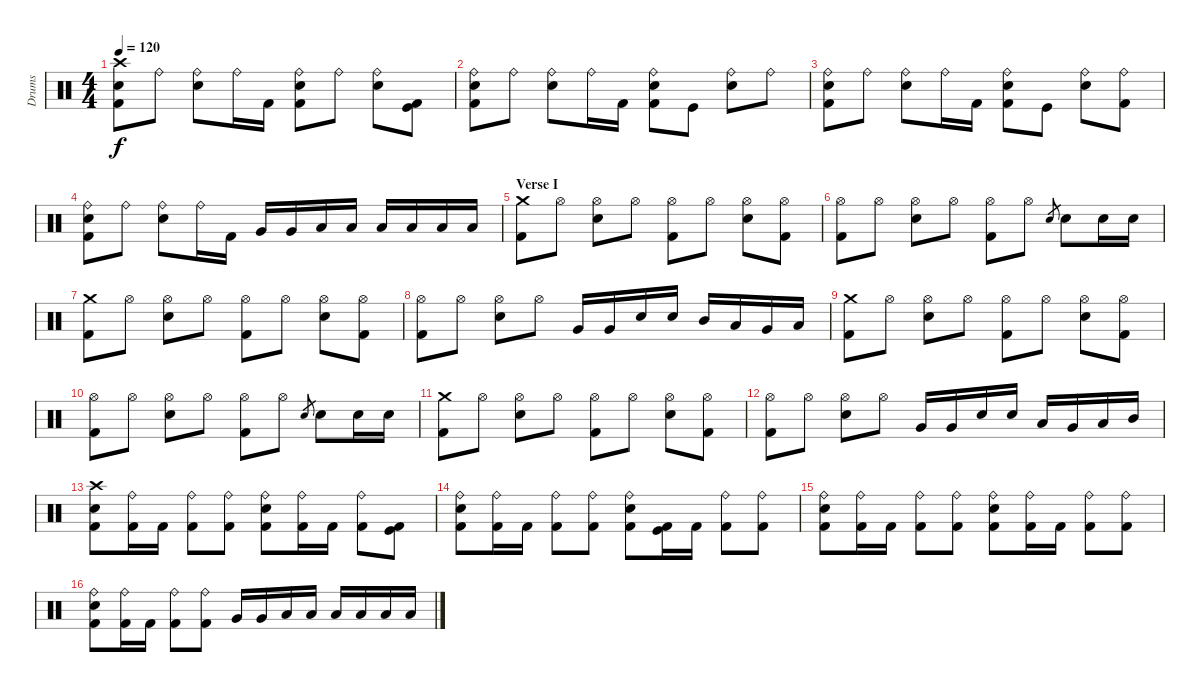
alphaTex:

\track ("Drums" "Drums") {instrument percussion}
\staff {score}
\articulation defaults
\ts (4 4)
\tempo 120
\clef neutral
\ks c
("Kick (hit) 2" "Snare (hit) 2" "Crash high (hit)").8{dy f} "Ride (bell)".8 ("Snare (hit) 2" "Ride (bell)").8 "Ride (bell)".16 "Kick (hit) 2".16 ("Kick (hit) 2" "Snare (hit) 2" "Ride (bell)").8 "Ride (bell)".8 ("Snare (hit) 2" "Ride (bell)").8 ("Kick (hit) 2" "Kick (hit)").8 |
("Kick (hit) 2" "Snare (hit) 2" "Ride (bell)").8 "Ride (bell)".8 ("Snare (hit) 2" "Ride (bell)").8 "Ride (bell)".16 "Kick (hit) 2".16 ("Kick (hit) 2" "Snare (hit) 2" "Ride (bell)").8 "Kick (hit)".8 ("Snare (hit) 2" "Ride (bell)").8 "Ride (bell)".8 |
("Kick (hit) 2" "Snare (hit) 2" "Ride (bell)").8 "Ride (bell)".8 ("Snare (hit) 2" "Ride (bell)").8 "Ride (bell)".16 "Kick (hit) 2".16 ("Kick (hit) 2" "Snare (hit) 2" "Ride (bell)").8 "Kick (hit)".8 ("Snare (hit) 2" "Ride (bell)").8 ("Kick (hit) 2" "Ride (bell)").8 |
("Kick (hit) 2" "Snare (hit) 2" "Ride (bell)").8 "Ride (bell)".8 ("Snare (hit) 2" "Ride (bell)").8 "Ride (bell)".16 "Kick (hit) 2".16 "Very Low Tom (hit)".16 "Very Low Tom (hit)".16 "Low Tom (hit)".16 "Low Tom (hit)".16 "Low Floor Tom (hit)".16 "Low Floor Tom (hit)".16 "Low Floor Tom (hit)".16 "Low Floor Tom (hit)".16 |
\section ("" "Verse I")
("Kick (hit) 2" "Crash medium (hit)").8 "Hi-Hat (open)".8 ("Snare (hit) 2" "Hi-Hat (open)").8 "Hi-Hat (open)".8 ("Kick (hit) 2" "Hi-Hat (open)").8 "Hi-Hat (open)".8 ("Snare (hit) 2" "Hi-Hat (open)").8 ("Kick (hit) 2" "Hi-Hat (open)").8 |
("Kick (hit) 2" "Hi-Hat (open)").8 "Hi-Hat (open)".8 ("Snare (hit) 2" "Hi-Hat (open)").8 "Hi-Hat (open)".8 ("Kick (hit) 2" "Hi-Hat (open)").8 "Hi-Hat (open)".8 "Snare (hit) 2".8{gr} "Snare (hit) 2".8 "Snare (hit) 2".16 "Snare (hit) 2".16 |
("Kick (hit) 2" "Crash medium (hit)").8 "Hi-Hat (open)".8 ("Snare (hit) 2" "Hi-Hat (open)").8 "Hi-Hat (open)".8 ("Kick (hit) 2" "Hi-Hat (open)").8 "Hi-Hat (open)".8 ("Snare (hit) 2" "Hi-Hat (open)").8 ("Kick (hit) 2" "Hi-Hat (open)").8 |
("Kick (hit) 2" "Hi-Hat (open)").8 "Hi-Hat (open)".8 ("Snare (hit) 2" "Hi-Hat (open)").8 "Hi-Hat (open)".8 "Very Low Tom (hit)".16 "Very Low Tom (hit)".16 "Snare (hit) 2".16 "Snare (hit) 2".16 "Mid Tom (hit)".16 "Low Tom (hit)".16 "Very Low Tom (hit)".16 "Low Floor Tom (hit)".16 |
("Kick (hit) 2" "Crash medium (hit)").8 "Hi-Hat (open)".8 ("Snare (hit) 2" "Hi-Hat (open)").8 "Hi-Hat (open)".8 ("Kick (hit) 2" "Hi-Hat (open)").8 "Hi-Hat (open)".8 ("Snare (hit) 2" "Hi-Hat (open)").8 ("Kick (hit) 2" "Hi-Hat (open)").8 |
("Kick (hit) 2" "Hi-Hat (open)").8 "Hi-Hat (open)".8 ("Snare (hit) 2" "Hi-Hat (open)").8 "Hi-Hat (open)".8 ("Kick (hit) 2" "Hi-Hat (open)").8 "Hi-Hat (open)".8 "Snare (hit) 2".8{gr} "Snare (hit) 2".8 "Snare (hit) 2".16 "Snare (hit) 2".16 |
("Kick (hit) 2" "Crash medium (hit)").8 "Hi-Hat (open)".8 ("Snare (hit) 2" "Hi-Hat (open)").8 "Hi-Hat (open)".8 ("Kick (hit) 2" "Hi-Hat (open)").8 "Hi-Hat (open)".8 ("Snare (hit) 2" "Hi-Hat (open)").8 ("Kick (hit) 2" "Hi-Hat (open)").8 |
("Kick (hit) 2" "Hi-Hat (open)").8 "Hi-Hat (open)".8 ("Snare (hit) 2" "Hi-Hat (open)").8 "Hi-Hat (open)".8 "Very Low Tom (hit)".16 "Very Low Tom (hit)".16 "Snare (hit) 2".16 "Snare (hit) 2".16 "Low Floor Tom (hit)".16 "Very Low Tom (hit)".16 "Low Tom (hit)".16 "Mid Tom (hit)".16 |
("Kick (hit) 2" "Snare (hit) 2" "Crash high (hit)").8 ("Kick (hit) 2" "Ride (bell)").16 "Kick (hit) 2".16 ("Kick (hit) 2" "Ride (bell)").8 ("Kick (hit) 2" "Ride (bell)").8 ("Kick (hit) 2" "Snare (hit) 2" "Ride (bell)").8 ("Kick (hit) 2" "Ride (bell)").16 "Kick (hit) 2".16 ("Kick (hit) 2" "Ride (bell)").8 ("Kick (hit) 2" "Kick (hit)").8 |
("Kick (hit) 2" "Snare (hit) 2" "Ride (bell)").8 ("Kick (hit) 2" "Ride (bell)").16 "Kick (hit) 2".16 ("Kick (hit) 2" "Ride (bell)").8 ("Kick (hit) 2" "Ride (bell)").8 ("Kick (hit) 2" "Snare (hit) 2" "Ride (bell)").8 ("Kick (hit) 2" "Kick (hit)").16 "Kick (hit) 2".16 ("Kick (hit) 2" "Ride (bell)").8 ("Kick (hit) 2" "Ride (bell)").8 |
("Kick (hit) 2" "Snare (hit) 2" "Ride (bell)").8 ("Kick (hit) 2" "Ride (bell)").16 "Kick (hit) 2".16 ("Kick (hit) 2" "Ride (bell)").8 ("Kick (hit) 2" "Ride (bell)").8 ("Kick (hit) 2" "Snare (hit) 2" "Ride (bell)").8 ("Kick (hit) 2" "Ride (bell)").16 "Kick (hit) 2".16 ("Kick (hit) 2" "Ride (bell)").8 ("Kick (hit) 2" "Ride (bell)").8 |
("Kick (hit) 2" "Snare (hit) 2" "Ride (bell)").8 ("Kick (hit) 2" "Ride (bell)").16 "Kick (hit) 2".16 ("Kick (hit) 2" "Ride (bell)").8 ("Kick (hit) 2" "Ride (bell)").8 "Very Low Tom (hit)".16 "Very Low Tom (hit)".16 "Low Tom (hit)".16 "Low Tom (hit)".16 "Low Floor Tom (hit)".16 "Low Floor Tom (hit)".16 "Low Floor Tom (hit)".16 "Low Floor Tom (hit)".16
